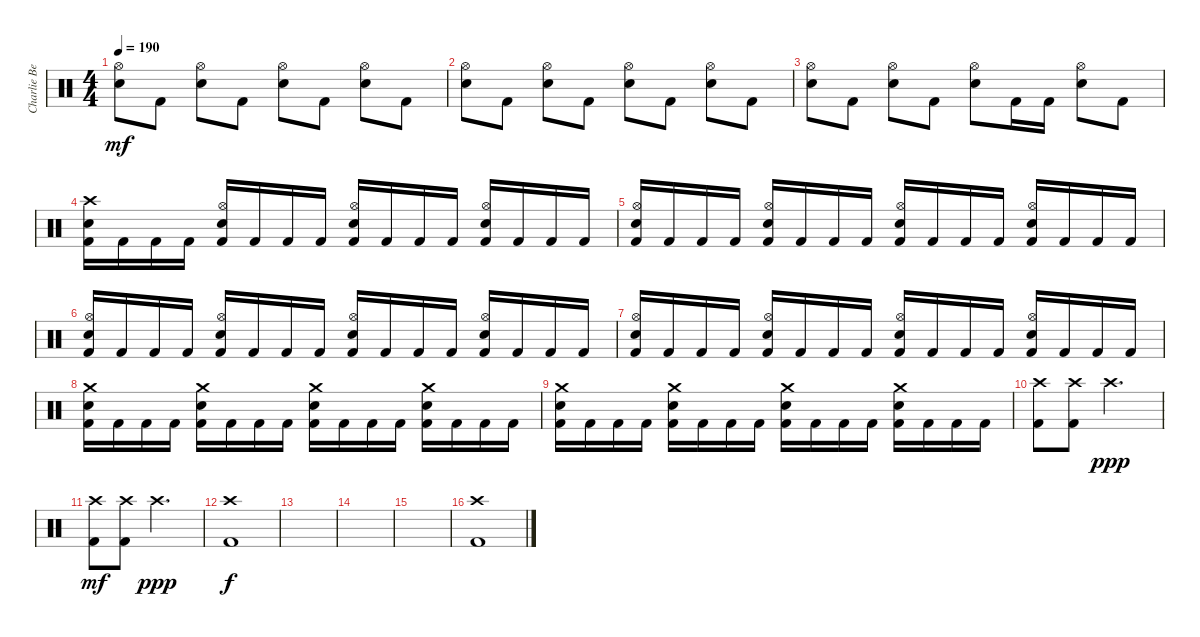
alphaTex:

\track ("Charlie Benante" "Charlie Be") {instrument percussion}
\staff {score}
\articulation defaults
\ts (4 4)
\tempo 190
\clef neutral
\ks c
("Snare (hit) 2" "Hi-Hat (open)").8{dy mf} "Kick (hit) 2".8 ("Snare (hit) 2" "Hi-Hat (open)").8 "Kick (hit) 2".8 ("Snare (hit) 2" "Hi-Hat (open)").8 "Kick (hit) 2".8 ("Snare (hit) 2" "Hi-Hat (open)").8 "Kick (hit) 2".8 |
("Snare (hit) 2" "Hi-Hat (open)").8 "Kick (hit) 2".8 ("Snare (hit) 2" "Hi-Hat (open)").8 "Kick (hit) 2".8 ("Snare (hit) 2" "Hi-Hat (open)").8 "Kick (hit) 2".8 ("Snare (hit) 2" "Hi-Hat (open)").8 "Kick (hit) 2".8 |
("Snare (hit) 2" "Hi-Hat (open)").8 "Kick (hit) 2".8 ("Snare (hit) 2" "Hi-Hat (open)").8 "Kick (hit) 2".8 ("Snare (hit) 2" "Hi-Hat (open)").8 "Kick (hit) 2".16 "Kick (hit) 2".16 ("Snare (hit) 2" "Hi-Hat (open)").8 "Kick (hit) 2".8 |
("Kick (hit) 2" "Snare (hit) 2" "Crash high (hit)").16 "Kick (hit) 2".16 "Kick (hit) 2".16 "Kick (hit) 2".16 ("Kick (hit) 2" "Snare (hit) 2" "Hi-Hat (open)").16 "Kick (hit) 2".16 "Kick (hit) 2".16 "Kick (hit) 2".16 ("Kick (hit) 2" "Snare (hit) 2" "Hi-Hat (open)").16 "Kick (hit) 2".16 "Kick (hit) 2".16 "Kick (hit) 2".16 ("Kick (hit) 2" "Snare (hit) 2" "Hi-Hat (open)").16 "Kick (hit) 2".16 "Kick (hit) 2".16 "Kick (hit) 2".16 |
("Kick (hit) 2" "Snare (hit) 2" "Hi-Hat (open)").16 "Kick (hit) 2".16 "Kick (hit) 2".16 "Kick (hit) 2".16 ("Kick (hit) 2" "Snare (hit) 2" "Hi-Hat (open)").16 "Kick (hit) 2".16 "Kick (hit) 2".16 "Kick (hit) 2".16 ("Kick (hit) 2" "Snare (hit) 2" "Hi-Hat (open)").16 "Kick (hit) 2".16 "Kick (hit) 2".16 "Kick (hit) 2".16 ("Kick (hit) 2" "Snare (hit) 2" "Hi-Hat (open)").16 "Kick (hit) 2".16 "Kick (hit) 2".16 "Kick (hit) 2".16 |
("Kick (hit) 2" "Snare (hit) 2" "Hi-Hat (open)").16 "Kick (hit) 2".16 "Kick (hit) 2".16 "Kick (hit) 2".16 ("Kick (hit) 2" "Snare (hit) 2" "Hi-Hat (open)").16 "Kick (hit) 2".16 "Kick (hit) 2".16 "Kick (hit) 2".16 ("Kick (hit) 2" "Snare (hit) 2" "Hi-Hat (open)").16 "Kick (hit) 2".16 "Kick (hit) 2".16 "Kick (hit) 2".16 ("Kick (hit) 2" "Snare (hit) 2" "Hi-Hat (open)").16 "Kick (hit) 2".16 "Kick (hit) 2".16 "Kick (hit) 2".16 |
("Kick (hit) 2" "Snare (hit) 2" "Hi-Hat (open)").16 "Kick (hit) 2".16 "Kick (hit) 2".16 "Kick (hit) 2".16 ("Kick (hit) 2" "Snare (hit) 2" "Hi-Hat (open)").16 "Kick (hit) 2".16 "Kick (hit) 2".16 "Kick (hit) 2".16 ("Kick (hit) 2" "Snare (hit) 2" "Hi-Hat (open)").16 "Kick (hit) 2".16 "Kick (hit) 2".16 "Kick (hit) 2".16 ("Kick (hit) 2" "Snare (hit) 2" "Hi-Hat (open)").16 "Kick (hit) 2".16 "Kick (hit) 2".16 "Kick (hit) 2".16 |
("Kick (hit) 2" "Snare (hit) 2" "Crash medium (hit)").16 "Kick (hit) 2".16 "Kick (hit) 2".16 "Kick (hit) 2".16 ("Kick (hit) 2" "Snare (hit) 2" "Crash medium (hit)").16 "Kick (hit) 2".16 "Kick (hit) 2".16 "Kick (hit) 2".16 ("Kick (hit) 2" "Snare (hit) 2" "Crash medium (hit)").16 "Kick (hit) 2".16 "Kick (hit) 2".16 "Kick (hit) 2".16 ("Kick (hit) 2" "Snare (hit) 2" "Crash medium (hit)").16 "Kick (hit) 2".16 "Kick (hit) 2".16 "Kick (hit) 2".16 |
("Kick (hit) 2" "Snare (hit) 2" "Crash medium (hit)").16 "Kick (hit) 2".16 "Kick (hit) 2".16 "Kick (hit) 2".16 ("Kick (hit) 2" "Snare (hit) 2" "Crash medium (hit)").16 "Kick (hit) 2".16 "Kick (hit) 2".16 "Kick (hit) 2".16 ("Kick (hit) 2" "Snare (hit) 2" "Crash medium (hit)").16 "Kick (hit) 2".16 "Kick (hit) 2".16 "Kick (hit) 2".16 ("Kick (hit) 2" "Snare (hit) 2" "Crash medium (hit)").16 "Kick (hit) 2".16 "Kick (hit) 2".16 "Kick (hit) 2".16 |
("Kick (hit) 2" "Crash high (hit)").8 ("Kick (hit) 2" "Crash high (hit)").8 "Crash high (hit)".2{d dy ppp} |
("Kick (hit) 2" "Crash high (hit)").8{dy mf} ("Kick (hit) 2" "Crash high (hit)").8 "Crash high (hit)".2{d dy ppp} |
("Kick (hit) 2" "Crash high (hit)").1{dy f} |
|
|
|
("Kick (hit) 2" "Crash high (hit)").1
